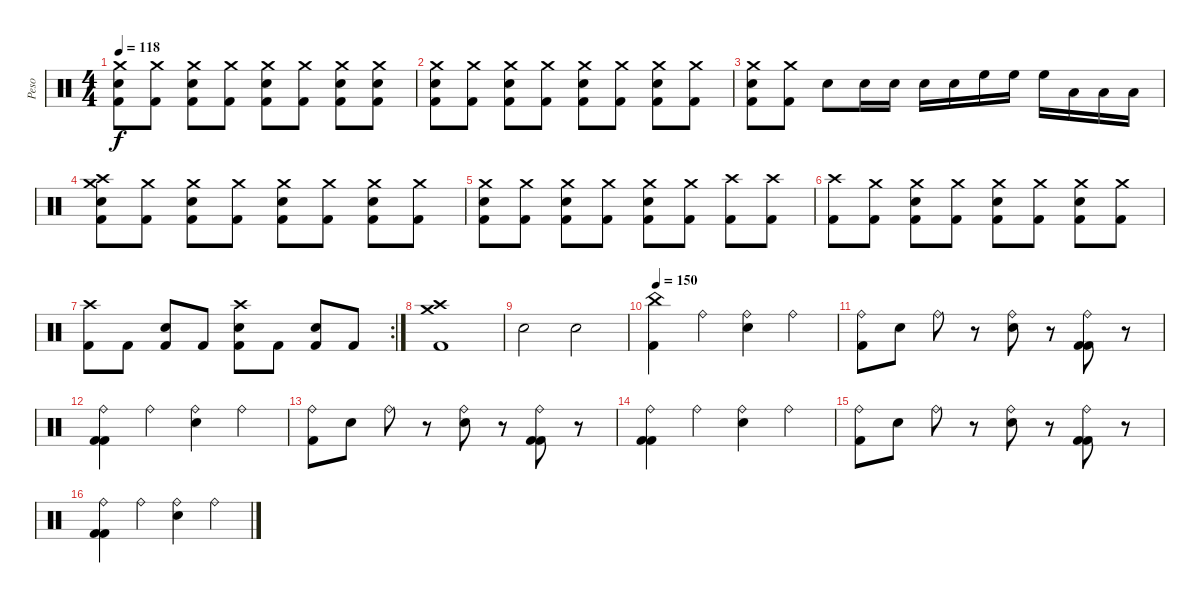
\track ("Peso" "Peso") {instrument percussion}
\staff {score}
\articulation defaults
\ts (4 4)
\tempo 118
\clef neutral
\ks c
("Crash medium (hit)" "Snare (hit) 2" "Kick (hit) 2").8{dy f} ("Crash medium (hit)" "Kick (hit) 2").8 ("Crash medium (hit)" "Snare (hit) 2" "Kick (hit) 2").8 ("Crash medium (hit)" "Kick (hit) 2").8 ("Crash medium (hit)" "Snare (hit) 2" "Kick (hit) 2").8 ("Crash medium (hit)" "Kick (hit) 2").8 ("Crash medium (hit)" "Snare (hit) 2" "Kick (hit) 2").8 ("Crash medium (hit)" "Snare (hit) 2" "Kick (hit) 2").8 |
("Crash medium (hit)" "Snare (hit) 2" "Kick (hit) 2").8 ("Crash medium (hit)" "Kick (hit) 2").8 ("Crash medium (hit)" "Snare (hit) 2" "Kick (hit) 2").8 ("Crash medium (hit)" "Kick (hit) 2").8 ("Crash medium (hit)" "Snare (hit) 2" "Kick (hit) 2").8 ("Crash medium (hit)" "Kick (hit) 2").8 ("Crash medium (hit)" "Snare (hit) 2" "Kick (hit) 2").8 ("Crash medium (hit)" "Kick (hit) 2").8 |
("Crash medium (hit)" "Snare (hit) 2" "Kick (hit) 2").8 ("Crash medium (hit)" "Kick (hit) 2").8 "Snare (hit) 2".8 "Snare (hit) 2".16 "Snare (hit) 2".16 "Snare (hit) 2".16 "Snare (hit) 2".16 "High Floor Tom (hit)".16 "High Floor Tom (hit)".16 "High Floor Tom (hit)".16 "Low Floor Tom (hit)".16 "Low Floor Tom (hit)".16 "Low Floor Tom (hit)".16 |
("Crash high (hit)" "Crash medium (hit)" "Snare (hit) 2" "Kick (hit) 2").8 ("Crash medium (hit)" "Kick (hit) 2").8 ("Crash medium (hit)" "Snare (hit) 2" "Kick (hit) 2").8 ("Crash medium (hit)" "Kick (hit) 2").8 ("Crash medium (hit)" "Snare (hit) 2" "Kick (hit) 2").8 ("Crash medium (hit)" "Kick (hit) 2").8 ("Crash medium (hit)" "Snare (hit) 2" "Kick (hit) 2").8 ("Crash medium (hit)" "Kick (hit) 2").8 |
("Crash medium (hit)" "Snare (hit) 2" "Kick (hit) 2").8 ("Crash medium (hit)" "Kick (hit) 2").8 ("Crash medium (hit)" "Snare (hit) 2" "Kick (hit) 2").8 ("Crash medium (hit)" "Kick (hit) 2").8 ("Crash medium (hit)" "Snare (hit) 2" "Kick (hit) 2").8 ("Crash medium (hit)" "Kick (hit) 2").8 ("Crash high (hit)" "Kick (hit) 2").8 ("Crash high (hit)" "Kick (hit) 2").8{volume 12} |
("Crash high (hit)" "Kick (hit) 2").8{volume 14} ("Crash medium (hit)" "Kick (hit) 2").8 ("Crash medium (hit)" "Snare (hit) 2" "Kick (hit) 2").8 ("Crash medium (hit)" "Kick (hit) 2").8 ("Crash medium (hit)" "Snare (hit) 2" "Kick (hit) 2").8 ("Crash medium (hit)" "Kick (hit) 2").8 ("Crash medium (hit)" "Snare (hit) 2" "Kick (hit) 2").8 ("Crash medium (hit)" "Kick (hit) 2").8 |
\rc 2
("Crash high (hit)" "Kick (hit) 2").8 "Kick (hit) 2".8 ("Snare (hit) 2" "Kick (hit) 2").8 "Kick (hit) 2".8 ("Crash high (hit)" "Snare (hit) 2" "Kick (hit) 2").8 "Kick (hit) 2".8 ("Snare (hit) 2" "Kick (hit) 2").8 "Kick (hit) 2".8 |
("Crash high (hit)" "Crash medium (hit)" "Kick (hit) 2").1 |
"Snare (hit) 2".2{volume 16} "Snare (hit) 2".2 |
\tempo 150
("China (hit)" "Kick (hit) 2").4{volume 14} "Ride (bell)".4 ("Ride (bell)" "Snare (hit) 2").4 "Ride (bell)".4 |
("Ride (bell)" "Kick (hit) 2").8 "Snare (hit) 2".8 "Ride (bell)".8 r.8 ("Ride (bell)" "Snare (hit) 2").8 r.8 ("Ride (bell)" "Kick (hit) 2" "Kick (hit) 2").8 r.8 |
("Ride (bell)" "Kick (hit) 2" "Kick (hit) 2").4 "Ride (bell)".4 ("Ride (bell)" "Snare (hit) 2").4 "Ride (bell)".4 |
("Ride (bell)" "Kick (hit) 2").8 "Snare (hit) 2".8 "Ride (bell)".8 r.8 ("Ride (bell)" "Snare (hit) 2").8 r.8 ("Ride (bell)" "Kick (hit) 2" "Kick (hit) 2").8 r.8 |
("Ride (bell)" "Kick (hit) 2" "Kick (hit) 2").4 "Ride (bell)".4 ("Ride (bell)" "Snare (hit) 2").4 "Ride (bell)".4 |
("Ride (bell)" "Kick (hit) 2").8 "Snare (hit) 2".8 "Ride (bell)".8 r.8 ("Ride (bell)" "Snare (hit) 2").8 r.8 ("Ride (bell)" "Kick (hit) 2" "Kick (hit) 2").8 r.8 |
("Ride (bell)" "Kick (hit) 2" "Kick (hit) 2").4 "Ride (bell)".4 ("Ride (bell)" "Snare (hit) 2").4 "Ride (bell)".4
